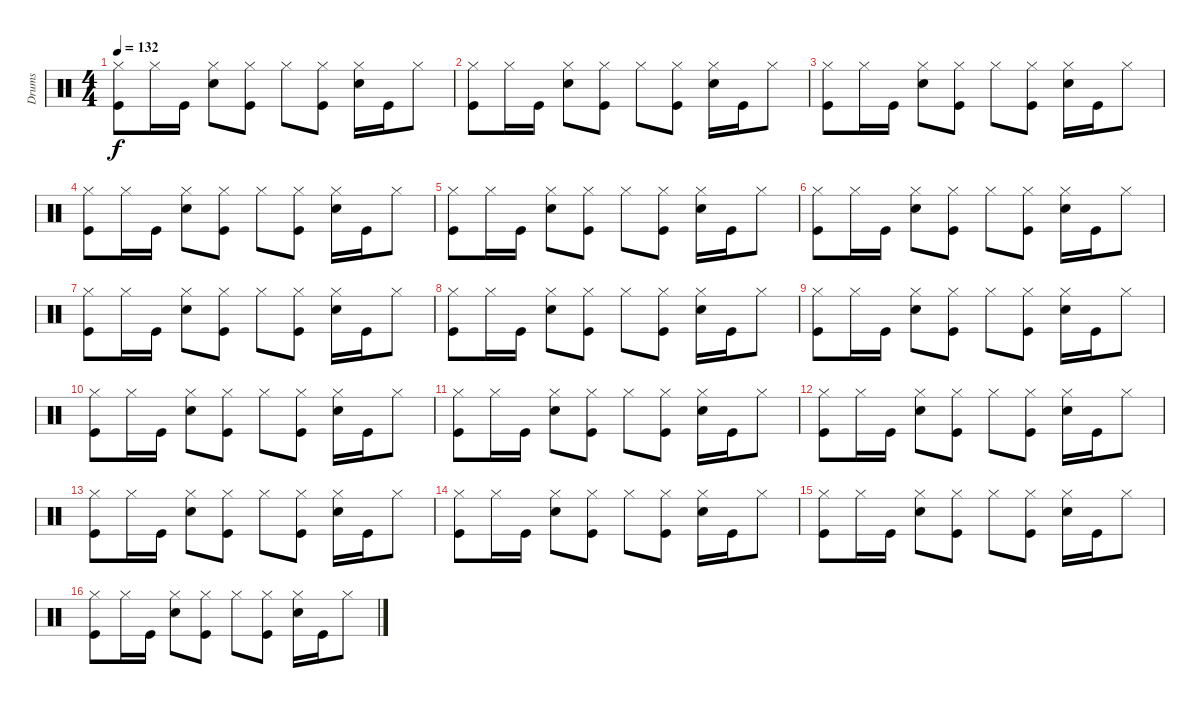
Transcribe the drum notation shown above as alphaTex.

\track ("Drums" "Drums") {instrument percussion}
\staff {score}
\articulation defaults
\ts (4 4)
\tempo 132
\clef neutral
\ks c
("Hi-Hat (closed)" "Kick (hit)").8{dy f} "Hi-Hat (closed)".16 "Kick (hit)".16 ("Hi-Hat (closed)" "Electric Snare (hit)").8 ("Hi-Hat (closed)" "Kick (hit)").8 "Hi-Hat (closed)".8 ("Hi-Hat (closed)" "Kick (hit)").8 ("Hi-Hat (closed)" "Electric Snare (hit)").16 "Kick (hit)".16 "Hi-Hat (closed)".8 |
("Hi-Hat (closed)" "Kick (hit)").8 "Hi-Hat (closed)".16 "Kick (hit)".16 ("Hi-Hat (closed)" "Electric Snare (hit)").8 ("Hi-Hat (closed)" "Kick (hit)").8 "Hi-Hat (closed)".8 ("Hi-Hat (closed)" "Kick (hit)").8 ("Hi-Hat (closed)" "Electric Snare (hit)").16 "Kick (hit)".16 "Hi-Hat (closed)".8 |
("Hi-Hat (closed)" "Kick (hit)").8 "Hi-Hat (closed)".16 "Kick (hit)".16 ("Hi-Hat (closed)" "Electric Snare (hit)").8 ("Hi-Hat (closed)" "Kick (hit)").8 "Hi-Hat (closed)".8 ("Hi-Hat (closed)" "Kick (hit)").8 ("Hi-Hat (closed)" "Electric Snare (hit)").16 "Kick (hit)".16 "Hi-Hat (closed)".8 |
("Hi-Hat (closed)" "Kick (hit)").8 "Hi-Hat (closed)".16 "Kick (hit)".16 ("Hi-Hat (closed)" "Electric Snare (hit)").8 ("Hi-Hat (closed)" "Kick (hit)").8 "Hi-Hat (closed)".8 ("Hi-Hat (closed)" "Kick (hit)").8 ("Hi-Hat (closed)" "Electric Snare (hit)").16 "Kick (hit)".16 "Hi-Hat (closed)".8 |
("Hi-Hat (closed)" "Kick (hit)").8 "Hi-Hat (closed)".16 "Kick (hit)".16 ("Hi-Hat (closed)" "Electric Snare (hit)").8 ("Hi-Hat (closed)" "Kick (hit)").8 "Hi-Hat (closed)".8 ("Hi-Hat (closed)" "Kick (hit)").8 ("Hi-Hat (closed)" "Electric Snare (hit)").16 "Kick (hit)".16 "Hi-Hat (closed)".8 |
("Hi-Hat (closed)" "Kick (hit)").8 "Hi-Hat (closed)".16 "Kick (hit)".16 ("Hi-Hat (closed)" "Electric Snare (hit)").8 ("Hi-Hat (closed)" "Kick (hit)").8 "Hi-Hat (closed)".8 ("Hi-Hat (closed)" "Kick (hit)").8 ("Hi-Hat (closed)" "Electric Snare (hit)").16 "Kick (hit)".16 "Hi-Hat (closed)".8 |
("Hi-Hat (closed)" "Kick (hit)").8 "Hi-Hat (closed)".16 "Kick (hit)".16 ("Hi-Hat (closed)" "Electric Snare (hit)").8 ("Hi-Hat (closed)" "Kick (hit)").8 "Hi-Hat (closed)".8 ("Hi-Hat (closed)" "Kick (hit)").8 ("Hi-Hat (closed)" "Electric Snare (hit)").16 "Kick (hit)".16 "Hi-Hat (closed)".8 |
("Hi-Hat (closed)" "Kick (hit)").8 "Hi-Hat (closed)".16 "Kick (hit)".16 ("Hi-Hat (closed)" "Electric Snare (hit)").8 ("Hi-Hat (closed)" "Kick (hit)").8 "Hi-Hat (closed)".8 ("Hi-Hat (closed)" "Kick (hit)").8 ("Hi-Hat (closed)" "Electric Snare (hit)").16 "Kick (hit)".16 "Hi-Hat (closed)".8 |
("Hi-Hat (closed)" "Kick (hit)").8 "Hi-Hat (closed)".16 "Kick (hit)".16 ("Hi-Hat (closed)" "Electric Snare (hit)").8 ("Hi-Hat (closed)" "Kick (hit)").8 "Hi-Hat (closed)".8 ("Hi-Hat (closed)" "Kick (hit)").8 ("Hi-Hat (closed)" "Electric Snare (hit)").16 "Kick (hit)".16 "Hi-Hat (closed)".8 |
("Hi-Hat (closed)" "Kick (hit)").8 "Hi-Hat (closed)".16 "Kick (hit)".16 ("Hi-Hat (closed)" "Electric Snare (hit)").8 ("Hi-Hat (closed)" "Kick (hit)").8 "Hi-Hat (closed)".8 ("Hi-Hat (closed)" "Kick (hit)").8 ("Hi-Hat (closed)" "Electric Snare (hit)").16 "Kick (hit)".16 "Hi-Hat (closed)".8 |
("Hi-Hat (closed)" "Kick (hit)").8 "Hi-Hat (closed)".16 "Kick (hit)".16 ("Hi-Hat (closed)" "Electric Snare (hit)").8 ("Hi-Hat (closed)" "Kick (hit)").8 "Hi-Hat (closed)".8 ("Hi-Hat (closed)" "Kick (hit)").8 ("Hi-Hat (closed)" "Electric Snare (hit)").16 "Kick (hit)".16 "Hi-Hat (closed)".8 |
("Hi-Hat (closed)" "Kick (hit)").8 "Hi-Hat (closed)".16 "Kick (hit)".16 ("Hi-Hat (closed)" "Electric Snare (hit)").8 ("Hi-Hat (closed)" "Kick (hit)").8 "Hi-Hat (closed)".8 ("Hi-Hat (closed)" "Kick (hit)").8 ("Hi-Hat (closed)" "Electric Snare (hit)").16 "Kick (hit)".16 "Hi-Hat (closed)".8 |
("Hi-Hat (closed)" "Kick (hit)").8 "Hi-Hat (closed)".16 "Kick (hit)".16 ("Hi-Hat (closed)" "Electric Snare (hit)").8 ("Hi-Hat (closed)" "Kick (hit)").8 "Hi-Hat (closed)".8 ("Hi-Hat (closed)" "Kick (hit)").8 ("Hi-Hat (closed)" "Electric Snare (hit)").16 "Kick (hit)".16 "Hi-Hat (closed)".8 |
("Hi-Hat (closed)" "Kick (hit)").8 "Hi-Hat (closed)".16 "Kick (hit)".16 ("Hi-Hat (closed)" "Electric Snare (hit)").8 ("Hi-Hat (closed)" "Kick (hit)").8 "Hi-Hat (closed)".8 ("Hi-Hat (closed)" "Kick (hit)").8 ("Hi-Hat (closed)" "Electric Snare (hit)").16 "Kick (hit)".16 "Hi-Hat (closed)".8 |
("Hi-Hat (closed)" "Kick (hit)").8 "Hi-Hat (closed)".16 "Kick (hit)".16 ("Hi-Hat (closed)" "Electric Snare (hit)").8 ("Hi-Hat (closed)" "Kick (hit)").8 "Hi-Hat (closed)".8 ("Hi-Hat (closed)" "Kick (hit)").8 ("Hi-Hat (closed)" "Electric Snare (hit)").16 "Kick (hit)".16 "Hi-Hat (closed)".8 |
("Hi-Hat (closed)" "Kick (hit)").8 "Hi-Hat (closed)".16 "Kick (hit)".16 ("Hi-Hat (closed)" "Electric Snare (hit)").8 ("Hi-Hat (closed)" "Kick (hit)").8 "Hi-Hat (closed)".8 ("Hi-Hat (closed)" "Kick (hit)").8 ("Hi-Hat (closed)" "Electric Snare (hit)").16 "Kick (hit)".16 "Hi-Hat (closed)".8
